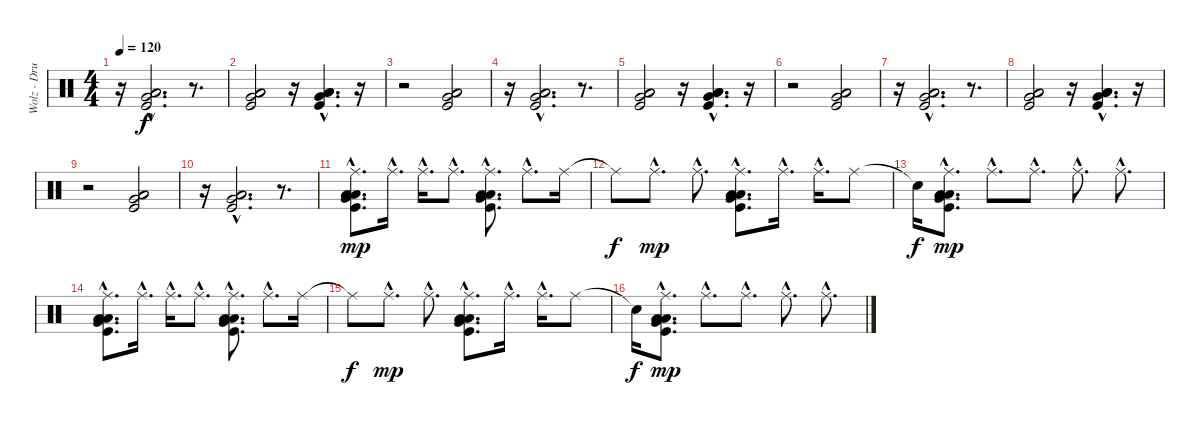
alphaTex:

\track ("Wolz - Drums" "Wolz - Dru") {instrument percussion}
\staff {score}
\articulation defaults
\ts (4 4)
\tempo 120
\clef neutral
\ks c
r.16{dy f} ("Low Tom (hit)"{hac} "Very Low Tom (hit)"{hac} "Low Floor Tom (hit)"{hac} "Kick (hit)"{hac}).2{d bu 60} r.8{d} |
("Low Tom (hit)" "Very Low Tom (hit)" "Low Floor Tom (hit)" "Kick (hit)").2{bu 60} r.16 ("Low Tom (hit)"{hac} "Very Low Tom (hit)"{hac} "Low Floor Tom (hit)"{hac} "Kick (hit)"{hac}).4{d bu 60} r.16 |
r.2 ("Low Tom (hit)" "Very Low Tom (hit)" "Low Floor Tom (hit)" "Kick (hit)").2{bu 60} |
r.16 ("Low Tom (hit)"{hac} "Very Low Tom (hit)"{hac} "Low Floor Tom (hit)"{hac} "Kick (hit)"{hac}).2{d bu 60} r.8{d} |
("Low Tom (hit)" "Very Low Tom (hit)" "Low Floor Tom (hit)" "Kick (hit)").2{bu 60} r.16 ("Low Tom (hit)"{hac} "Very Low Tom (hit)"{hac} "Low Floor Tom (hit)"{hac} "Kick (hit)"{hac}).4{d bu 60} r.16 |
r.2 ("Low Tom (hit)" "Very Low Tom (hit)" "Low Floor Tom (hit)" "Kick (hit)").2{bu 60} |
r.16 ("Low Tom (hit)"{hac} "Very Low Tom (hit)"{hac} "Low Floor Tom (hit)"{hac} "Kick (hit)"{hac}).2{d bu 60} r.8{d} |
("Low Tom (hit)" "Very Low Tom (hit)" "Low Floor Tom (hit)" "Kick (hit)").2{bu 60} r.16 ("Low Tom (hit)"{hac} "Very Low Tom (hit)"{hac} "Low Floor Tom (hit)"{hac} "Kick (hit)"{hac}).4{d bu 60} r.16 |
r.2 ("Low Tom (hit)" "Very Low Tom (hit)" "Low Floor Tom (hit)" "Kick (hit)").2{bu 60} |
r.16 ("Low Tom (hit)"{hac} "Very Low Tom (hit)"{hac} "Low Floor Tom (hit)"{hac} "Kick (hit)"{hac}).2{d bu 60} r.8{d} |
("Ride (middle)"{hac} "Low Tom (hit)"{hac} "Very Low Tom (hit)"{hac} "Low Floor Tom (hit)"{hac} "Kick (hit)"{hac}).8{d bu 60 dy mp} "Ride (middle)"{hac}.16{d} "Ride (middle)"{hac}.16{d} "Ride (middle)"{hac}.8{d} ("Ride (middle)"{hac} "Low Tom (hit)"{hac} "Very Low Tom (hit)"{hac} "Low Floor Tom (hit)"{hac} "Kick (hit)"{hac}).8{d bu 60} "Ride (middle)"{hac}.8{d} "Ride (middle)".16 |
"Ride (middle)"{t}.8{dy f} "Ride (middle)"{hac}.8{d dy mp} "Ride (middle)"{hac}.8{d bu 60} ("Ride (middle)"{hac} "Low Tom (hit)"{hac} "Very Low Tom (hit)"{hac} "Low Floor Tom (hit)"{hac} "Kick (hit)"{hac}).8{d bu 60} "Ride (middle)"{hac}.16{d} "Ride (middle)"{hac}.16{d} "Ride (middle)".8 |
"Snare (hit)"{t}.16{dy f} ("Ride (middle)"{hac} "Low Tom (hit)"{hac} "Very Low Tom (hit)"{hac} "Low Floor Tom (hit)"{hac} "Kick (hit)"{hac}).8{d bu 60 dy mp} "Ride (middle)"{hac}.8{d} "Ride (middle)"{hac}.8{d} "Ride (middle)"{hac}.8{d} "Ride (middle)"{hac}.8{d} |
("Ride (middle)"{hac} "Low Tom (hit)"{hac} "Very Low Tom (hit)"{hac} "Low Floor Tom (hit)"{hac} "Kick (hit)"{hac}).8{d bu 60} "Ride (middle)"{hac}.16{d} "Ride (middle)"{hac}.16{d} "Ride (middle)"{hac}.8{d} ("Ride (middle)"{hac} "Low Tom (hit)"{hac} "Very Low Tom (hit)"{hac} "Low Floor Tom (hit)"{hac} "Kick (hit)"{hac}).8{d bu 60} "Ride (middle)"{hac}.8{d} "Ride (middle)".16 |
"Ride (middle)"{t}.8{dy f} "Ride (middle)"{hac}.8{d dy mp} "Ride (middle)"{hac}.8{d bu 60} ("Ride (middle)"{hac} "Low Tom (hit)"{hac} "Very Low Tom (hit)"{hac} "Low Floor Tom (hit)"{hac} "Kick (hit)"{hac}).8{d bu 60} "Ride (middle)"{hac}.16{d} "Ride (middle)"{hac}.16{d} "Ride (middle)".8 |
"Snare (hit)"{t}.16{dy f} ("Ride (middle)"{hac} "Low Tom (hit)"{hac} "Very Low Tom (hit)"{hac} "Low Floor Tom (hit)"{hac} "Kick (hit)"{hac}).8{d bu 60 dy mp} "Ride (middle)"{hac}.8{d} "Ride (middle)"{hac}.8{d} "Ride (middle)"{hac}.8{d} "Ride (middle)"{hac}.8{d}
